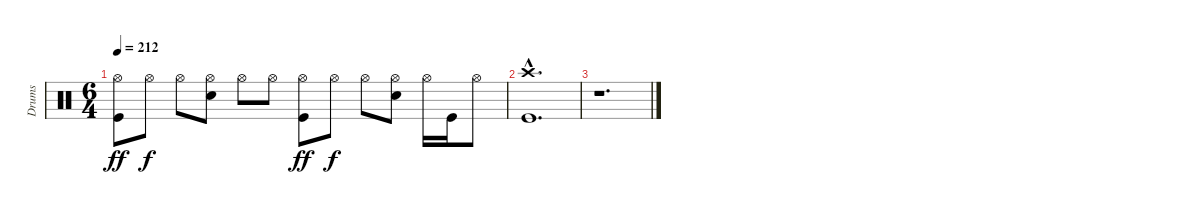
\track ("Drums" "Drums") {instrument percussion}
\staff {score}
\articulation defaults
\ts (6 4)
\tempo 212
\clef neutral
\ks c
("Hi-Hat (open)" "Kick (hit)").8{dy ff} "Hi-Hat (open)".8{dy f} "Hi-Hat (open)".8 ("Hi-Hat (open)" "Snare (hit) 2").8 "Hi-Hat (open)".8 "Hi-Hat (open)".8 ("Hi-Hat (open)" "Kick (hit)").8{dy ff} "Hi-Hat (open)".8{dy f} "Hi-Hat (open)".8 ("Hi-Hat (open)" "Snare (hit) 2").8 "Hi-Hat (open)".16 "Kick (hit)".16 "Hi-Hat (open)".8 |
("Crash high (hit)"{hac} "Kick (hit)"{hac}).1{d} |
r.1{d}
